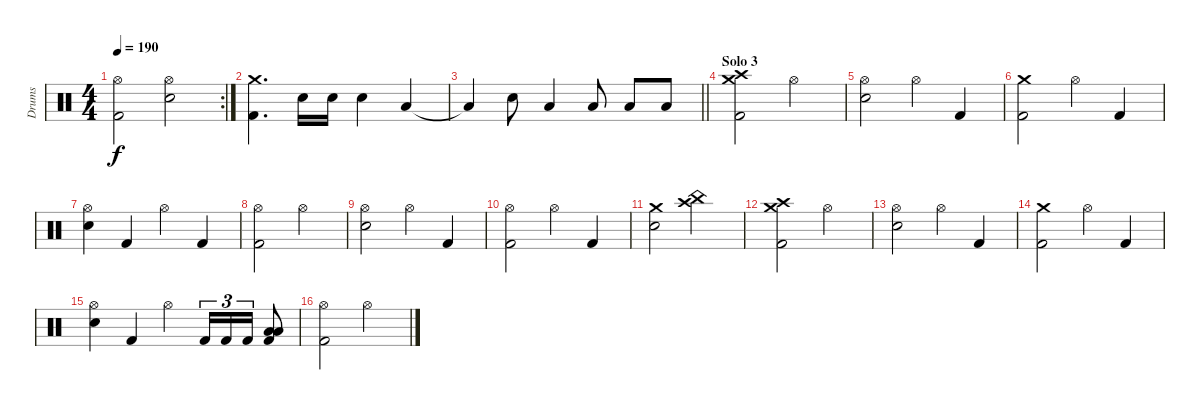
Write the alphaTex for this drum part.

\track ("Drums" "Drums") {instrument percussion}
\staff {score}
\articulation defaults
\rc 2
\ts (4 4)
\tempo 190
\clef neutral
\ks c
("Hi-Hat (open)" "Kick (hit) 2").2{dy f} ("Hi-Hat (open)" "Snare (hit) 2").2 |
("Crash medium (hit)" "Kick (hit) 2").4{d} "Snare (hit) 2".16 "Snare (hit) 2".16 "Snare (hit) 2".4 "Low Tom (hit)".4 |
\barLineRight lightlight "Low Tom (hit)"{t}.4 "Snare (hit) 2".8 "Low Tom (hit)".4 "Low Tom (hit)".8 "Low Floor Tom (hit)".8 "Low Floor Tom (hit)".8
|
\section ("" "Solo 3")
("Crash high (hit)" "Crash medium (hit)" "Kick (hit) 2").2 "Hi-Hat (open)".2 |
("Hi-Hat (open)" "Snare (hit) 2").2 "Hi-Hat (open)".4 "Kick (hit) 2".4 |
("Crash medium (hit)" "Kick (hit) 2").2 "Hi-Hat (open)".4 "Kick (hit) 2".4 |
("Hi-Hat (open)" "Snare (hit) 2").4 "Kick (hit) 2".4 "Hi-Hat (open)".4 "Kick (hit) 2".4 |
("Hi-Hat (open)" "Kick (hit) 2").2 "Hi-Hat (open)".2 |
("Hi-Hat (open)" "Snare (hit) 2").2 "Hi-Hat (open)".4 "Kick (hit) 2".4 |
("Hi-Hat (open)" "Kick (hit) 2").2 "Hi-Hat (open)".4 "Kick (hit) 2".4 |
("Crash medium (hit)" "Snare (hit) 2").2 ("Crash high (hit)" "China (hit)").2 |
("Crash high (hit)" "Crash medium (hit)" "Kick (hit) 2").2 "Hi-Hat (open)".2 |
("Hi-Hat (open)" "Snare (hit) 2").2 "Hi-Hat (open)".4 "Kick (hit) 2".4 |
("Crash medium (hit)" "Kick (hit) 2").2 "Hi-Hat (open)".4 "Kick (hit) 2".4 |
("Hi-Hat (open)" "Snare (hit) 2").4 "Kick (hit) 2".4 "Hi-Hat (open)".4 "Kick (hit) 2".16{tu (3 2)} "Kick (hit) 2".16{tu (3 2)} "Kick (hit) 2".16{tu (3 2)} ("Kick (hit) 2" "Low Tom (hit)" "Low Floor Tom (hit)").8 |
("Hi-Hat (open)" "Kick (hit) 2").2 "Hi-Hat (open)".2
